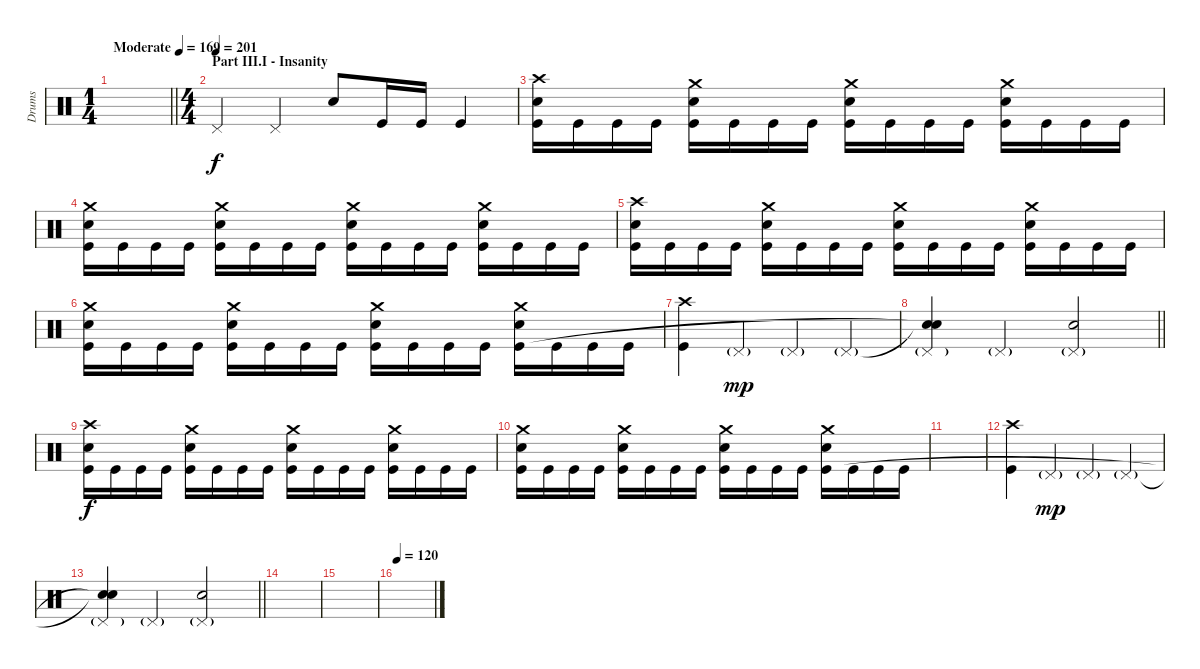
\track ("Drums" "Drums") {instrument percussion}
\staff
\articulation defaults
\ts (1 4)
\tempo (169 "Moderate")
\clef neutral
\barLineRight lightlight
\ks c
|
\ts (4 4)
\section ("" "Part III.I - Insanity")
\tempo (201)
"Pedal Hi-Hat (hit)".4 "Pedal Hi-Hat (hit)".4 "Electric Snare (hit)".8 "Kick (hit)".16 "Kick (hit)".16 "Kick (hit)".4 |
("Crash high (hit)" "Electric Snare (hit)" "Kick (hit)").16 "Kick (hit)".16 "Kick (hit)".16 "Kick (hit)".16 ("Crash medium (hit)" "Electric Snare (hit)" "Kick (hit)").16 "Kick (hit)".16 "Kick (hit)".16 "Kick (hit)".16 ("Crash medium (hit)" "Electric Snare (hit)" "Kick (hit)").16 "Kick (hit)".16 "Kick (hit)".16 "Kick (hit)".16 ("Crash medium (hit)" "Electric Snare (hit)" "Kick (hit)").16 "Kick (hit)".16 "Kick (hit)".16 "Kick (hit)".16 |
("Crash medium (hit)" "Electric Snare (hit)" "Kick (hit)").16 "Kick (hit)".16 "Kick (hit)".16 "Kick (hit)".16 ("Crash medium (hit)" "Electric Snare (hit)" "Kick (hit)").16 "Kick (hit)".16 "Kick (hit)".16 "Kick (hit)".16 ("Crash medium (hit)" "Electric Snare (hit)" "Kick (hit)").16 "Kick (hit)".16 "Kick (hit)".16 "Kick (hit)".16 ("Crash medium (hit)" "Electric Snare (hit)" "Kick (hit)").16 "Kick (hit)".16 "Kick (hit)".16 "Kick (hit)".16 |
("Crash high (hit)" "Electric Snare (hit)" "Kick (hit)").16 "Kick (hit)".16 "Kick (hit)".16 "Kick (hit)".16 ("Crash medium (hit)" "Electric Snare (hit)" "Kick (hit)").16 "Kick (hit)".16 "Kick (hit)".16 "Kick (hit)".16 ("Crash medium (hit)" "Electric Snare (hit)" "Kick (hit)").16 "Kick (hit)".16 "Kick (hit)".16 "Kick (hit)".16 ("Crash medium (hit)" "Electric Snare (hit)" "Kick (hit)").16 "Kick (hit)".16 "Kick (hit)".16 "Kick (hit)".16 |
("Crash medium (hit)" "Electric Snare (hit)" "Kick (hit)").16 "Kick (hit)".16 "Kick (hit)".16 "Kick (hit)".16 ("Crash medium (hit)" "Electric Snare (hit)" "Kick (hit)").16 "Kick (hit)".16 "Kick (hit)".16 "Kick (hit)".16 ("Crash medium (hit)" "Electric Snare (hit)" "Kick (hit)").16 "Kick (hit)".16 "Kick (hit)".16 "Kick (hit)".16 ("Crash medium (hit)" "Electric Snare (hit)" "Kick (hit)").16 "Kick (hit)".16 "Kick (hit)".16 "Kick (hit)".16 |
("Crash high (hit)" "Kick (hit)").4 "Pedal Hi-Hat (hit)"{g}.4{dy mp} "Pedal Hi-Hat (hit)"{g}.4 "Pedal Hi-Hat (hit)"{g}.4 |
\barLineRight lightlight
("Snare (hit)"{t} "Pedal Hi-Hat (hit)"{g} "Snare (hit)"{t}).4 "Pedal Hi-Hat (hit)"{g}.4 ("Pedal Hi-Hat (hit)"{g} "Electric Snare (hit)").2 |
("Crash high (hit)" "Electric Snare (hit)" "Kick (hit)").16{dy f} "Kick (hit)".16 "Kick (hit)".16 "Kick (hit)".16 ("Crash medium (hit)" "Electric Snare (hit)" "Kick (hit)").16 "Kick (hit)".16 "Kick (hit)".16 "Kick (hit)".16 ("Crash medium (hit)" "Electric Snare (hit)" "Kick (hit)").16 "Kick (hit)".16 "Kick (hit)".16 "Kick (hit)".16 ("Crash medium (hit)" "Electric Snare (hit)" "Kick (hit)").16 "Kick (hit)".16 "Kick (hit)".16 "Kick (hit)".16 |
("Crash medium (hit)" "Electric Snare (hit)" "Kick (hit)").16 "Kick (hit)".16 "Kick (hit)".16 "Kick (hit)".16 ("Crash medium (hit)" "Electric Snare (hit)" "Kick (hit)").16 "Kick (hit)".16 "Kick (hit)".16 "Kick (hit)".16 ("Crash medium (hit)" "Electric Snare (hit)" "Kick (hit)").16 "Kick (hit)".16 "Kick (hit)".16 "Kick (hit)".16 ("Crash medium (hit)" "Electric Snare (hit)" "Kick (hit)").16 "Kick (hit)".16 "Kick (hit)".16 "Kick (hit)".16 |
|
("Crash high (hit)" "Kick (hit)").4 "Pedal Hi-Hat (hit)"{g}.4{dy mp} "Pedal Hi-Hat (hit)"{g}.4 "Pedal Hi-Hat (hit)"{g}.4 |
\barLineRight lightlight
("Snare (hit)"{t} "Pedal Hi-Hat (hit)"{g} "Snare (hit)"{t}).4 "Pedal Hi-Hat (hit)"{g}.4 ("Pedal Hi-Hat (hit)"{g} "Electric Snare (hit)").2 |
|
|
\tempo 120
